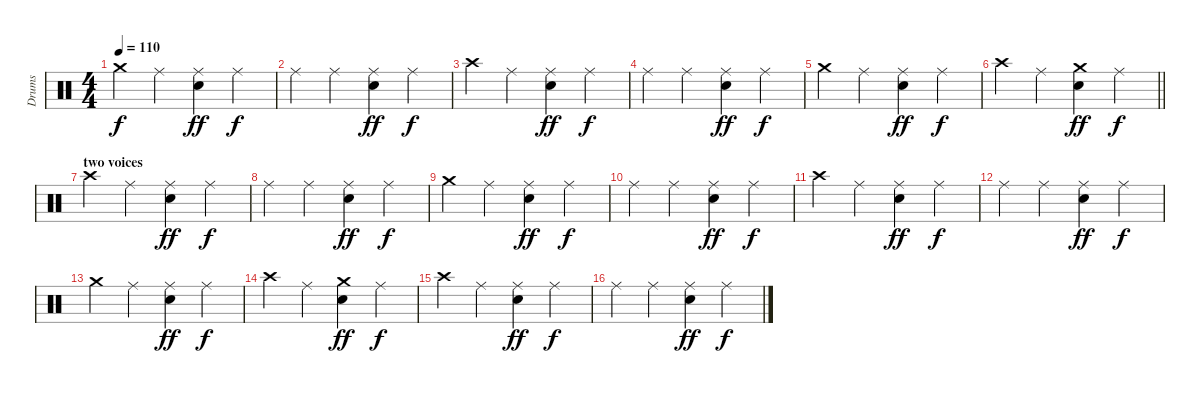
\track ("Drums" "Drums") {instrument percussion}
\staff {score}
\articulation defaults
\ts (4 4)
\tempo 110
\clef neutral
\ks c "Crash medium (hit)".4{dy f} "Ride (middle)".4
("Ride (middle)" "Snare (hit) 2").4{dy ff} "Ride (middle)".4{dy f} |
"Ride (middle)".4 "Ride (middle)".4 ("Ride (middle)" "Snare (hit) 2").4{dy ff} "Ride (middle)".4{dy f} |
"Crash high (hit)".4 "Ride (middle)".4 ("Ride (middle)" "Snare (hit) 2").4{dy ff} "Ride (middle)".4{dy f} |
"Ride (middle)".4 "Ride (middle)".4 ("Ride (middle)" "Snare (hit) 2").4{dy ff} "Ride (middle)".4{dy f} |
"Crash medium (hit)".4 "Ride (middle)".4 ("Ride (middle)" "Snare (hit) 2").4{dy ff} "Ride (middle)".4{dy f} |
\barLineRight lightlight "Crash high (hit)".4 "Ride (middle)".4
("Crash medium (hit)" "Snare (hit) 2").4{dy ff} "Ride (middle)".4{dy f} |
\section ("" "two voices")
"Crash high (hit)".4 "Ride (middle)".4 ("Ride (middle)" "Snare (hit) 2").4{dy ff} "Ride (middle)".4{dy f} |
"Ride (middle)".4 "Ride (middle)".4 ("Ride (middle)" "Snare (hit) 2").4{dy ff} "Ride (middle)".4{dy f} |
"Crash medium (hit)".4 "Ride (middle)".4 ("Ride (middle)" "Snare (hit) 2").4{dy ff} "Ride (middle)".4{dy f} |
"Ride (middle)".4 "Ride (middle)".4 ("Ride (middle)" "Snare (hit) 2").4{dy ff} "Ride (middle)".4{dy f} |
"Crash high (hit)".4 "Ride (middle)".4 ("Ride (middle)" "Snare (hit) 2").4{dy ff} "Ride (middle)".4{dy f} |
"Ride (middle)".4 "Ride (middle)".4 ("Ride (middle)" "Snare (hit) 2").4{dy ff} "Ride (middle)".4{dy f} |
"Crash medium (hit)".4 "Ride (middle)".4 ("Ride (middle)" "Snare (hit) 2").4{dy ff} "Ride (middle)".4{dy f} |
"Crash high (hit)".4 "Ride (middle)".4 ("Crash medium (hit)" "Snare (hit) 2").4{dy ff} "Ride (middle)".4{dy f} |
"Crash high (hit)".4 "Ride (middle)".4 ("Ride (middle)" "Snare (hit) 2").4{dy ff} "Ride (middle)".4{dy f} |
"Ride (middle)".4 "Ride (middle)".4 ("Ride (middle)" "Snare (hit) 2").4{dy ff} "Ride (middle)".4{dy f}
